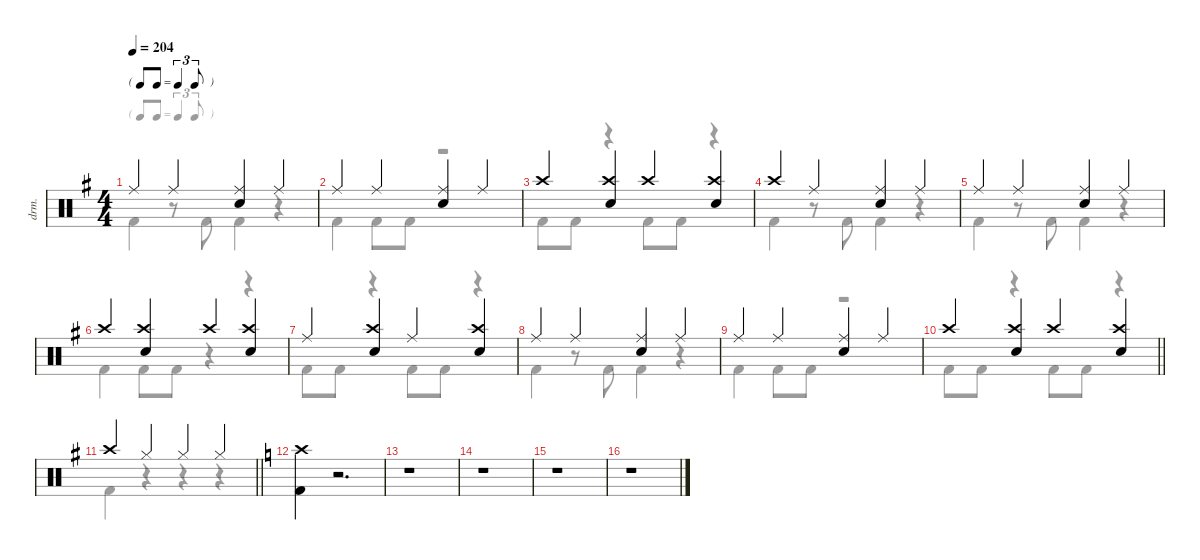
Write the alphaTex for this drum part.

\defaultSystemsLayout 4
\hideDynamics
\bracketExtendMode nobrackets
\otherSystemsTrackNameOrientation horizontal
\track ("Lars Ulrich" "drm.") {defaultSystemsLayout 8 instrument percussion}
\staff {score}
\articulation defaults
\voice
\ts (4 4)
\tf triplet8th
\tempo 204
\clef neutral
\ks eminor "Ride (middle)"{acc forcenatural}.4{dy f beam Up} "Ride (middle)"{acc forcenatural}.4{beam Up}
("Ride (middle)"{acc forcenatural} "Snare (hit) 2"{acc forcenatural}).4{beam Up} "Ride (middle)"{acc forcenatural}.4{beam Up} |
"Ride (middle)"{acc forcenatural}.4{beam Up} "Ride (middle)"{acc forcenatural}.4{beam Up} ("Ride (middle)"{acc forcenatural} "Snare (hit) 2"{acc forcenatural}).4{beam Up} "Ride (middle)"{acc forcenatural}.4{beam Up} |
"Crash high (hit)"{acc forcenatural}.4{beam Up} ("Crash high (hit)"{acc forcenatural} "Snare (hit) 2"{acc forcenatural}).4{beam Up} "Crash high (hit)"{acc forcenatural}.4{beam Up} ("Crash high (hit)"{acc forcenatural} "Snare (hit) 2"{acc forcenatural}).4{beam Up} |
"Crash high (hit)"{acc forcenatural}.4{beam Up} "Ride (middle)"{acc forcenatural}.4{beam Up} ("Ride (middle)"{acc forcenatural} "Snare (hit) 2"{acc forcenatural}).4{beam Up} "Ride (middle)"{acc forcenatural}.4{beam Up} |
"Ride (middle)"{acc forcenatural}.4{beam Up} "Ride (middle)"{acc forcenatural}.4{beam Up} ("Ride (middle)"{acc forcenatural} "Snare (hit) 2"{acc forcenatural}).4{beam Up} "Ride (middle)"{acc forcenatural}.4{beam Up} |
"Crash high (hit)"{acc forcenatural}.4{beam Up} ("Crash high (hit)"{acc forcenatural} "Snare (hit) 2"{acc forcenatural}).4{beam Up} "Crash high (hit)"{acc forcenatural}.4{beam Up} ("Crash high (hit)"{acc forcenatural} "Snare (hit) 2"{acc forcenatural}).4{beam Up} |
"Ride (middle)"{acc forcenatural}.4{beam Up} ("Crash high (hit)"{acc forcenatural} "Snare (hit) 2"{acc forcenatural}).4{beam Up} "Ride (middle)"{acc forcenatural}.4{beam Up} ("Crash high (hit)"{acc forcenatural} "Snare (hit) 2"{acc forcenatural}).4{beam Up} |
"Ride (middle)"{acc forcenatural}.4{beam Up} "Ride (middle)"{acc forcenatural}.4{beam Up} ("Ride (middle)"{acc forcenatural} "Snare (hit) 2"{acc forcenatural}).4{beam Up} "Ride (middle)"{acc forcenatural}.4{beam Up} |
"Ride (middle)"{acc forcenatural}.4{beam Up} "Ride (middle)"{acc forcenatural}.4{beam Up} ("Ride (middle)"{acc forcenatural} "Snare (hit) 2"{acc forcenatural}).4{beam Up} "Ride (middle)"{acc forcenatural}.4{beam Up} |
\barLineRight lightlight "Crash high (hit)"{acc forcenatural}.4{beam Up}
("Crash high (hit)"{acc forcenatural} "Snare (hit) 2"{acc forcenatural}).4{beam Up} "Crash high (hit)"{acc forcenatural}.4{beam Up} ("Crash high (hit)"{acc forcenatural} "Snare (hit) 2"{acc forcenatural}).4{beam Up} |
\barLineRight lightlight "Crash high (hit)"{acc forcenatural}.4{beam Up} "Hi-Hat (closed)"{acc forcenatural}.4{beam Up} "Hi-Hat (closed)"{acc forcenatural}.4{beam Up} "Hi-Hat (closed)"{acc forcenatural}.4{beam Up}
|
\ks aminor
("Crash high (hit)" "Kick (hit) 2").4{beam Down} r.2{d beam Down} |
r.1{beam Down} |
r.1{beam Down} |
r.1{beam Down} |
r.1{beam Down}
\voice
\clef neutral
\ottava regular
\simile none
\ks eminor "Kick (hit) 2"{acc forcenatural}.4{dy f beam Down}
r.8{beam Down} "Kick (hit) 2"{acc forcenatural}.8{beam Down} "Kick (hit) 2"{acc forcenatural}.4{beam Down} r.4{beam Down} |
"Kick (hit) 2"{acc forcenatural}.4{beam Down} "Kick (hit) 2"{acc forcenatural}.8{beam Down} "Kick (hit) 2"{acc forcenatural}.8{beam Down} r.2{beam Down} |
"Kick (hit) 2"{acc forcenatural}.8{beam Down} "Kick (hit) 2"{acc forcenatural}.8{beam Down} r.4{beam Down} "Kick (hit) 2"{acc forcenatural}.8{beam Down} "Kick (hit) 2"{acc forcenatural}.8{beam Down} r.4{beam Down} |
"Kick (hit) 2"{acc forcenatural}.4{beam Down} r.8{beam Down} "Kick (hit) 2"{acc forcenatural}.8{beam Down} "Kick (hit) 2"{acc forcenatural}.4{beam Down} r.4{beam Down} |
"Kick (hit) 2"{acc forcenatural}.4{beam Down} r.8{beam Down} "Kick (hit) 2"{acc forcenatural}.8{beam Down} "Kick (hit) 2"{acc forcenatural}.4{beam Down} r.4{beam Down} |
"Kick (hit) 2"{acc forcenatural}.4{beam Down} "Kick (hit) 2"{acc forcenatural}.8{beam Down} "Kick (hit) 2"{acc forcenatural}.8{beam Down} r.4{beam Down} r.4{beam Down} |
"Kick (hit) 2"{acc forcenatural}.8{beam Down} "Kick (hit) 2"{acc forcenatural}.8{beam Down} r.4{beam Down} "Kick (hit) 2"{acc forcenatural}.8{beam Down} "Kick (hit) 2"{acc forcenatural}.8{beam Down} r.4{beam Down} |
"Kick (hit) 2"{acc forcenatural}.4{beam Down} r.8{beam Down} "Kick (hit) 2"{acc forcenatural}.8{beam Down} "Kick (hit) 2"{acc forcenatural}.4{beam Down} r.4{beam Down} |
"Kick (hit) 2"{acc forcenatural}.4{beam Down} "Kick (hit) 2"{acc forcenatural}.8{beam Down} "Kick (hit) 2"{acc forcenatural}.8{beam Down} r.2{beam Down} |
\barLineRight lightlight "Kick (hit) 2"{acc forcenatural}.8{beam Down} "Kick (hit) 2"{acc forcenatural}.8{beam Down}
r.4{beam Down} "Kick (hit) 2"{acc forcenatural}.8{beam Down} "Kick (hit) 2"{acc forcenatural}.8{beam Down} r.4{beam Down} |
\barLineRight lightlight "Kick (hit) 2"{acc forcenatural}.4{beam Down}
r.4{beam Down} r.4{beam Down} r.4{beam Down} |
\ks aminor
|
|
|
|
